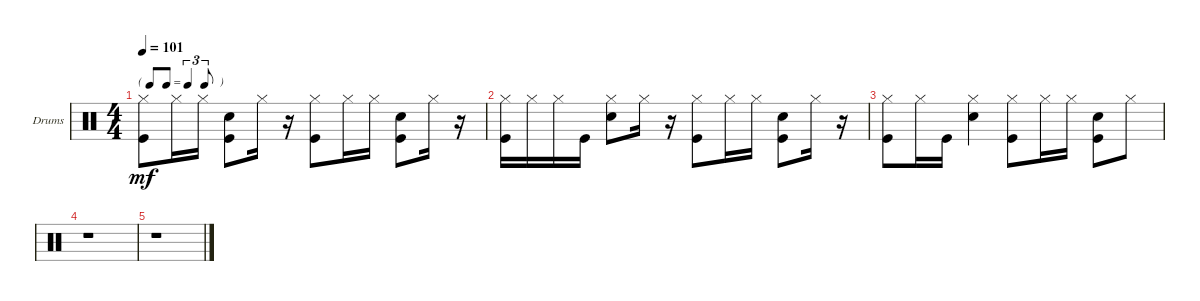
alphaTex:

\bracketExtendMode groupsimilarinstruments
\firstSystemTrackNameOrientation horizontal
\otherSystemsTrackNameOrientation horizontal
\track ("Charlie Watts" "Drums") {instrument percussion}
\staff {score}
\articulation defaults
\ts (4 4)
\tf triplet8th
\tempo 101
\clef neutral
\scale
0.333333
\ks c
("Hi-Hat (closed)" "Kick (hit)").8{dy mf} "Hi-Hat (closed)".16 "Hi-Hat (closed)".16 ("Kick (hit)" "Snare (hit) 2").8 "Hi-Hat (closed)".16 r.16 ("Kick (hit)" "Hi-Hat (closed)").8 "Hi-Hat (closed)".16 "Hi-Hat (closed)".16 ("Kick (hit)" "Snare (hit) 2").8 "Hi-Hat (closed)".16 r.16 |
\scale
0.333333 ("Hi-Hat (closed)" "Kick (hit)").16 "Hi-Hat (closed)".16 "Hi-Hat (closed)".16 "Kick (hit)".16 ("Hi-Hat (closed)" "Snare (hit) 2").8 "Hi-Hat (closed)".16 r.16 ("Kick (hit)" "Hi-Hat (closed)").8 "Hi-Hat (closed)".16 "Hi-Hat (closed)".16 ("Kick (hit)" "Snare (hit) 2").8 "Hi-Hat (closed)".16 r.16 |
("Hi-Hat (closed)" "Kick (hit)").8 "Hi-Hat (closed)".16 "Kick (hit)".16 ("Hi-Hat (closed)" "Snare (hit) 2").4 ("Hi-Hat (closed)" "Kick (hit)").8 "Hi-Hat (closed)".16 "Hi-Hat (closed)".16 ("Kick (hit)" "Snare (hit) 2").8 "Hi-Hat (closed)".8 |
r.1 |
r.1
